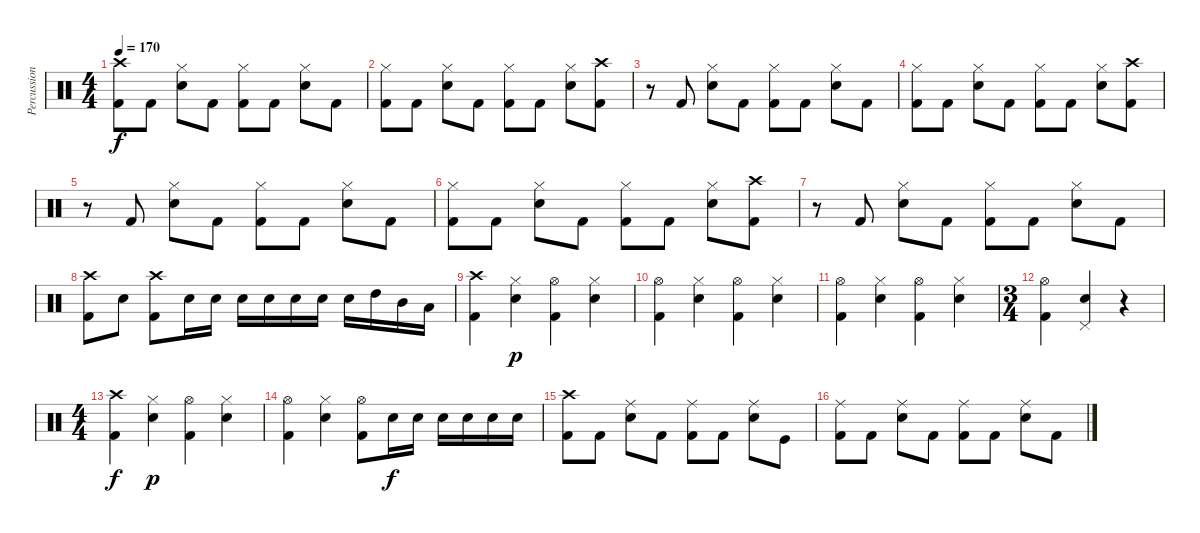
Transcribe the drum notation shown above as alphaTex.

\track ("Percussion" "Percussion") {instrument percussion}
\staff {score}
\articulation defaults
\ts (4 4)
\tempo 170
\clef neutral
\ks c
("Crash high (hit)" "Kick (hit) 2").8{dy f} "Kick (hit) 2".8 ("Hi-Hat (closed)" "Electric Snare (hit)").8 "Kick (hit) 2".8 ("Hi-Hat (closed)" "Kick (hit) 2").8 "Kick (hit) 2".8 ("Hi-Hat (closed)" "Electric Snare (hit)").8 "Kick (hit) 2".8 |
("Hi-Hat (closed)" "Kick (hit) 2").8 "Kick (hit) 2".8 ("Hi-Hat (closed)" "Electric Snare (hit)").8 "Kick (hit) 2".8 ("Hi-Hat (closed)" "Kick (hit) 2").8 "Kick (hit) 2".8 ("Hi-Hat (closed)" "Electric Snare (hit)").8 ("Crash high (hit)" "Kick (hit) 2").8 |
r.8 "Kick (hit) 2".8 ("Hi-Hat (closed)" "Electric Snare (hit)").8 "Kick (hit) 2".8 ("Hi-Hat (closed)" "Kick (hit) 2").8 "Kick (hit) 2".8 ("Hi-Hat (closed)" "Electric Snare (hit)").8 "Kick (hit) 2".8 |
("Hi-Hat (closed)" "Kick (hit) 2").8 "Kick (hit) 2".8 ("Hi-Hat (closed)" "Electric Snare (hit)").8 "Kick (hit) 2".8 ("Hi-Hat (closed)" "Kick (hit) 2").8 "Kick (hit) 2".8 ("Hi-Hat (closed)" "Electric Snare (hit)").8 ("Crash high (hit)" "Kick (hit) 2").8 |
r.8 "Kick (hit) 2".8 ("Hi-Hat (closed)" "Electric Snare (hit)").8 "Kick (hit) 2".8 ("Hi-Hat (closed)" "Kick (hit) 2").8 "Kick (hit) 2".8 ("Hi-Hat (closed)" "Electric Snare (hit)").8 "Kick (hit) 2".8 |
("Hi-Hat (closed)" "Kick (hit) 2").8 "Kick (hit) 2".8 ("Hi-Hat (closed)" "Electric Snare (hit)").8 "Kick (hit) 2".8 ("Hi-Hat (closed)" "Kick (hit) 2").8 "Kick (hit) 2".8 ("Hi-Hat (closed)" "Electric Snare (hit)").8 ("Crash high (hit)" "Kick (hit) 2").8 |
r.8 "Kick (hit) 2".8 ("Hi-Hat (closed)" "Electric Snare (hit)").8 "Kick (hit) 2".8 ("Hi-Hat (closed)" "Kick (hit) 2").8 "Kick (hit) 2".8 ("Hi-Hat (closed)" "Electric Snare (hit)").8 "Kick (hit) 2".8 |
("Crash high (hit)" "Kick (hit) 2").8 "Electric Snare (hit)".8 ("Crash high (hit)" "Kick (hit) 2").8 "Electric Snare (hit)".16 "Electric Snare (hit)".16 "Electric Snare (hit)".16 "Electric Snare (hit)".16 "Electric Snare (hit)".16 "Electric Snare (hit)".16 "Electric Snare (hit)".16 "High Tom (hit)".16 "Mid Tom (hit)".16 "Low Tom (hit)".16 |
("Crash high (hit)" "Kick (hit) 2").4 ("Hi-Hat (closed)" "Electric Snare (hit)").4{dy p} ("Hi-Hat (open)" "Kick (hit) 2").4 ("Hi-Hat (closed)" "Electric Snare (hit)").4 |
("Hi-Hat (open)" "Kick (hit) 2").4 ("Hi-Hat (closed)" "Electric Snare (hit)").4 ("Hi-Hat (open)" "Kick (hit) 2").4 ("Hi-Hat (closed)" "Electric Snare (hit)").4 |
("Hi-Hat (open)" "Kick (hit) 2").4 ("Hi-Hat (closed)" "Electric Snare (hit)").4 ("Hi-Hat (open)" "Kick (hit) 2").4 ("Hi-Hat (closed)" "Electric Snare (hit)").4 |
\ts (3 4)
("Hi-Hat (open)" "Kick (hit) 2").4 ("Pedal Hi-Hat (hit)" "Electric Snare (hit)").4 r.4 |
\ts (4 4)
("Crash high (hit)" "Kick (hit) 2").4{dy f} ("Hi-Hat (closed)" "Electric Snare (hit)").4{dy p} ("Hi-Hat (open)" "Kick (hit) 2").4 ("Hi-Hat (closed)" "Electric Snare (hit)").4 |
("Hi-Hat (open)" "Kick (hit) 2").4 ("Hi-Hat (closed)" "Electric Snare (hit)").4 ("Hi-Hat (open)" "Kick (hit) 2").8 "Electric Snare (hit)".16{dy f} "Electric Snare (hit)".16 "Electric Snare (hit)".16 "Electric Snare (hit)".16 "Electric Snare (hit)".16 "Electric Snare (hit)".16 |
("Crash high (hit)" "Kick (hit) 2").8 "Kick (hit) 2".8 ("Ride (middle)" "Electric Snare (hit)").8 "Kick (hit) 2".8 ("Ride (middle)" "Kick (hit) 2").8 "Kick (hit) 2".8 ("Ride (middle)" "Electric Snare (hit)").8 "Kick (hit)".8 |
("Ride (middle)" "Kick (hit) 2").8 "Kick (hit) 2".8 ("Ride (middle)" "Electric Snare (hit)").8 "Kick (hit) 2".8 ("Ride (middle)" "Kick (hit) 2").8 "Kick (hit) 2".8 ("Ride (middle)" "Electric Snare (hit)").8 "Kick (hit) 2".8
